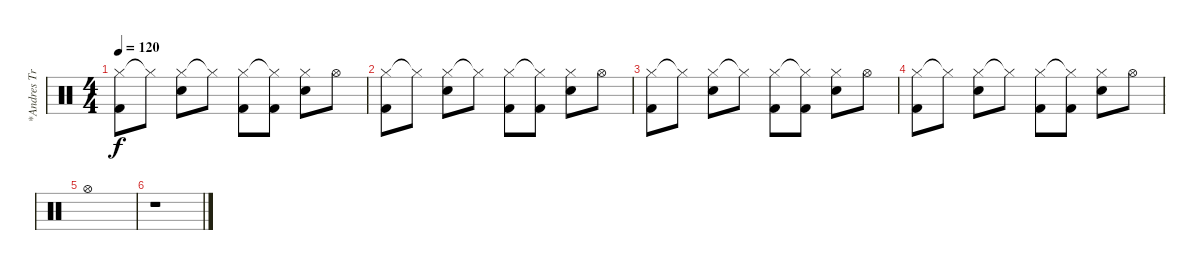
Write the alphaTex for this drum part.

\track ("*Andres Trujillo" "*Andres Tr") {instrument percussion}
\staff {score}
\articulation defaults
\ts (4 4)
\tempo 120
\clef neutral
\ks c
("Hi-Hat (closed)" "Kick (hit) 2").8{dy f} "Hi-Hat (closed)"{t}.8 ("Hi-Hat (closed)" "Electric Snare (hit)").8 "Hi-Hat (closed)"{t}.8 ("Hi-Hat (closed)" "Kick (hit) 2").8 ("Hi-Hat (closed)"{t} "Kick (hit) 2").8 ("Hi-Hat (closed)" "Electric Snare (hit)").8 "Hi-Hat (open)".8 |
("Hi-Hat (closed)" "Kick (hit) 2").8 "Hi-Hat (closed)"{t}.8 ("Hi-Hat (closed)" "Electric Snare (hit)").8 "Hi-Hat (closed)"{t}.8 ("Hi-Hat (closed)" "Kick (hit) 2").8 ("Hi-Hat (closed)"{t} "Kick (hit) 2").8 ("Hi-Hat (closed)" "Electric Snare (hit)").8 "Hi-Hat (open)".8 |
("Hi-Hat (closed)" "Kick (hit) 2").8 "Hi-Hat (closed)"{t}.8 ("Hi-Hat (closed)" "Electric Snare (hit)").8 "Hi-Hat (closed)"{t}.8 ("Hi-Hat (closed)" "Kick (hit) 2").8 ("Hi-Hat (closed)"{t} "Kick (hit) 2").8 ("Hi-Hat (closed)" "Electric Snare (hit)").8 "Hi-Hat (open)".8 |
("Hi-Hat (closed)" "Kick (hit) 2").8 "Hi-Hat (closed)"{t}.8 ("Hi-Hat (closed)" "Electric Snare (hit)").8 "Hi-Hat (closed)"{t}.8 ("Hi-Hat (closed)" "Kick (hit) 2").8 ("Hi-Hat (closed)"{t} "Kick (hit) 2").8 ("Hi-Hat (closed)" "Electric Snare (hit)").8 "Hi-Hat (open)".8 |
"Hi-Hat (open)".1 |
r.1
